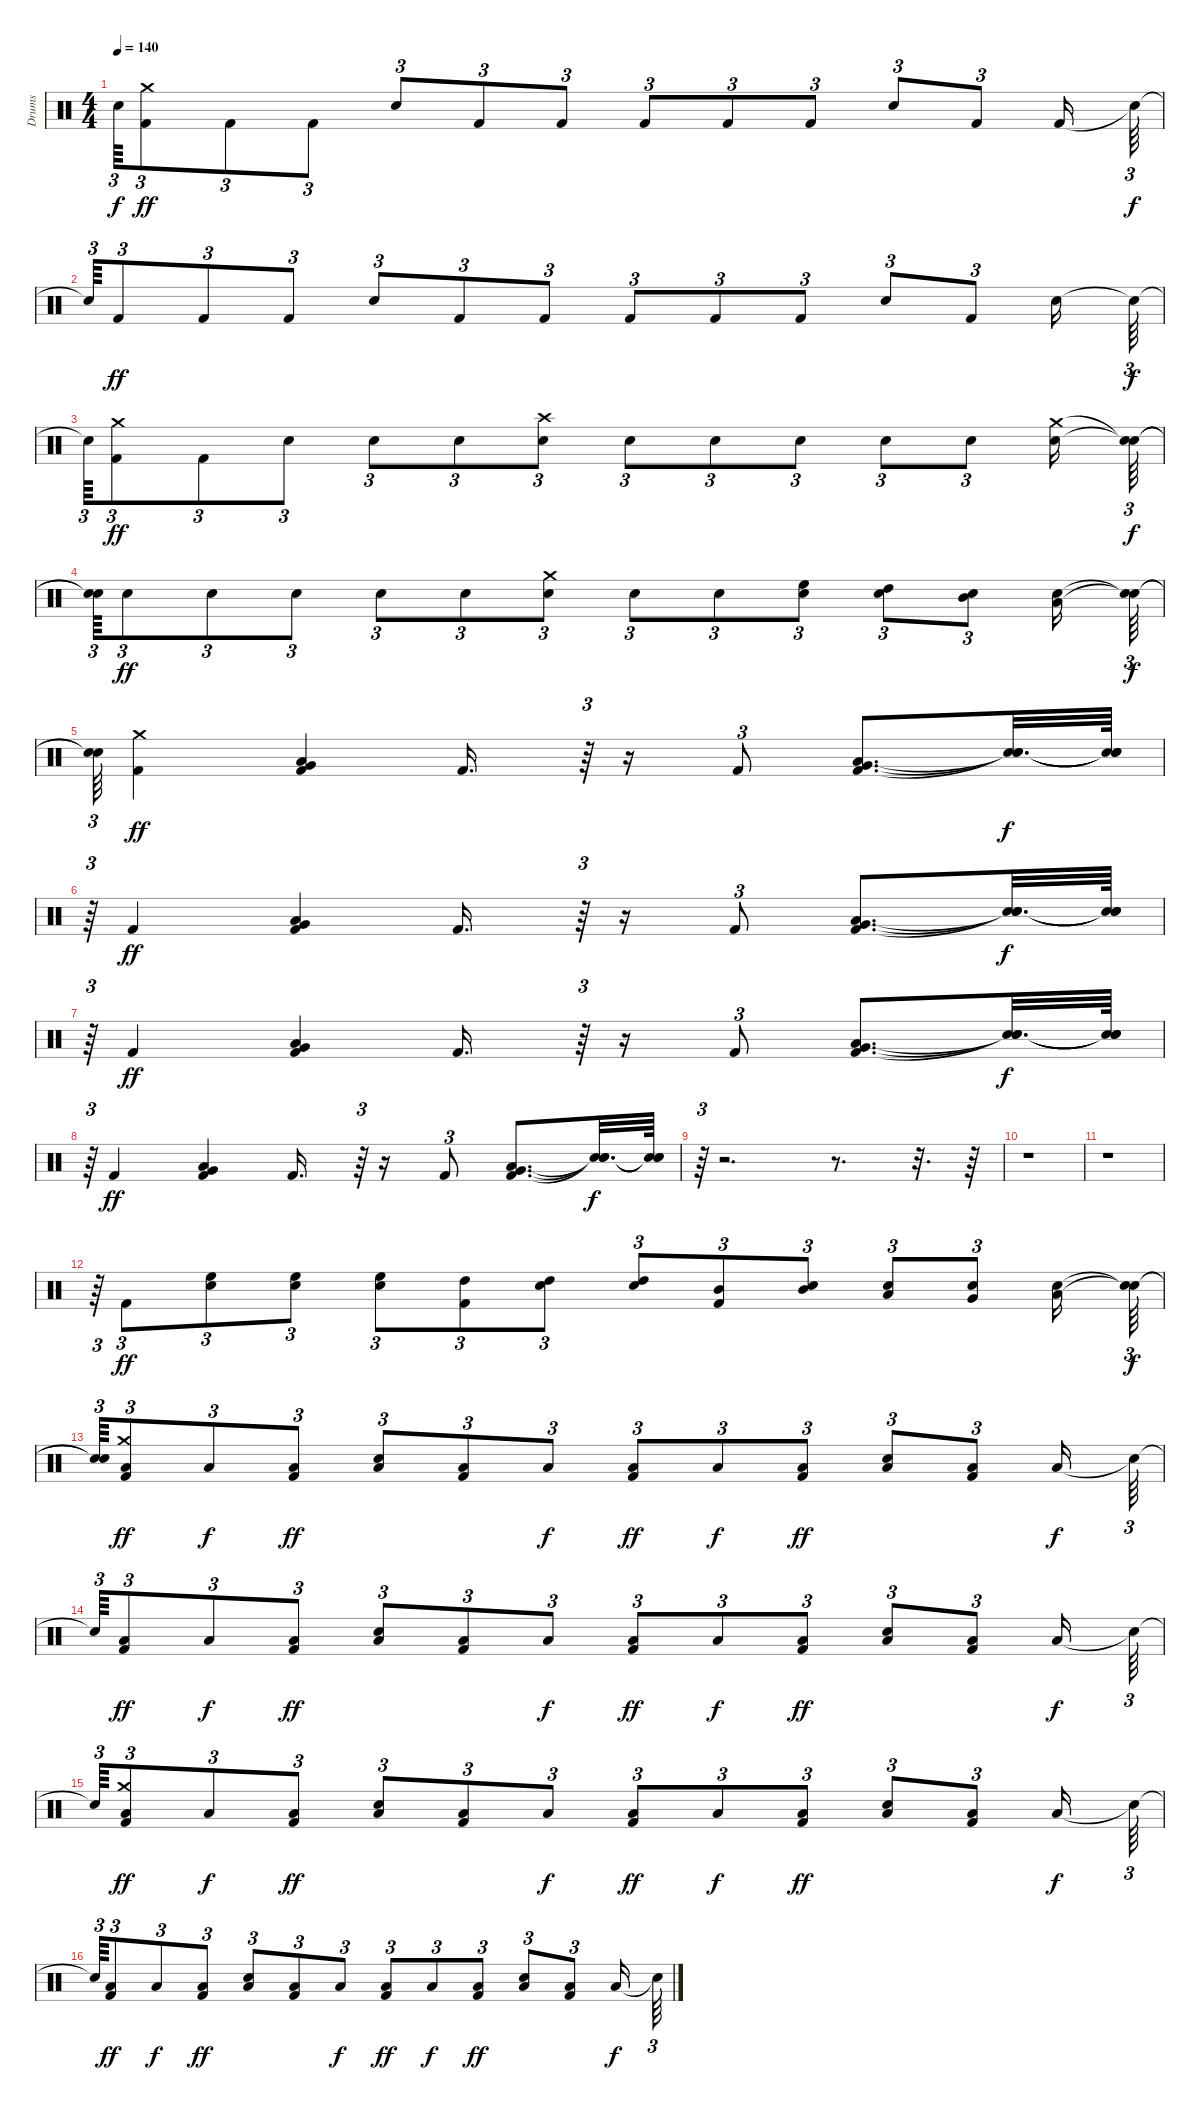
\track ("Drums" "Drums") {instrument percussion}
\staff {score}
\articulation defaults
\ts (4 4)
\tempo 140
\clef neutral
\ks c "Snare (hit)"{t}.64{tu (3 2) dy f}
("Kick (hit) 2" "Crash medium (hit)").8{tu (3 2) dy ff} "Kick (hit) 2".8{tu (3 2)} "Kick (hit) 2".8{tu (3 2)} "Snare (hit) 2".8{tu (3 2)} "Kick (hit) 2".8{tu (3 2)} "Kick (hit) 2".8{tu (3 2)} "Kick (hit) 2".8{tu (3 2)} "Kick (hit) 2".8{tu (3 2)} "Kick (hit) 2".8{tu (3 2)} "Snare (hit) 2".8{tu (3 2)} "Kick (hit) 2".8{tu (3 2)} "Kick (hit) 2".16 "Snare (hit)"{t}.64{tu (3 2) dy f} |
"Snare (hit)"{t}.64{tu (3 2)} "Kick (hit) 2".8{tu (3 2) dy ff} "Kick (hit) 2".8{tu (3 2)} "Kick (hit) 2".8{tu (3 2)} "Snare (hit) 2".8{tu (3 2)} "Kick (hit) 2".8{tu (3 2)} "Kick (hit) 2".8{tu (3 2)} "Kick (hit) 2".8{tu (3 2)} "Kick (hit) 2".8{tu (3 2)} "Kick (hit) 2".8{tu (3 2)} "Snare (hit) 2".8{tu (3 2)} "Kick (hit) 2".8{tu (3 2)} "Snare (hit) 2".16 "Snare (hit)"{t}.64{tu (3 2) dy f} |
"Snare (hit)"{t}.64{tu (3 2)} ("Kick (hit) 2" "Crash medium (hit)").8{tu (3 2) dy ff} "Kick (hit) 2".8{tu (3 2)} "Snare (hit) 2".8{tu (3 2)} "Snare (hit) 2".8{tu (3 2)} "Snare (hit) 2".8{tu (3 2)} ("Snare (hit) 2" "Crash high (hit)").8{tu (3 2)} "Snare (hit) 2".8{tu (3 2)} "Snare (hit) 2".8{tu (3 2)} "Snare (hit) 2".8{tu (3 2)} "Snare (hit) 2".8{tu (3 2)} "Snare (hit) 2".8{tu (3 2)} ("Snare (hit) 2" "Crash medium (hit)").16 ("Snare (hit)"{t} "Snare (hit)"{t}).64{tu (3 2) dy f} |
("Snare (hit)"{t} "Snare (hit)"{t}).64{tu (3 2)} "Snare (hit) 2".8{tu (3 2) dy ff} "Snare (hit) 2".8{tu (3 2)} "Snare (hit) 2".8{tu (3 2)} "Snare (hit) 2".8{tu (3 2)} "Snare (hit) 2".8{tu (3 2)} ("Snare (hit) 2" "Crash medium (hit)").8{tu (3 2)} "Snare (hit) 2".8{tu (3 2)} "Snare (hit) 2".8{tu (3 2)} ("Snare (hit) 2" "High Floor Tom (hit)").8{tu (3 2)} ("Snare (hit) 2" "High Tom (hit)").8{tu (3 2)} ("Snare (hit) 2" "Mid Tom (hit)").8{tu (3 2)} ("Snare (hit) 2" "Low Tom (hit)").16 ("Snare (hit)"{t} "Snare (hit)"{t}).64{tu (3 2) dy f} |
("Snare (hit)"{t} "Snare (hit)"{t}).64{tu (3 2)} ("Kick (hit) 2" "Crash medium (hit)").4{dy ff} ("Kick (hit) 2" "Low Floor Tom (hit)" "Very Low Tom (hit)").4 "Kick (hit) 2".16{d} r.64{tu (3 2)} r.16 "Kick (hit) 2".8{tu (3 2)} ("Kick (hit) 2" "Low Floor Tom (hit)" "Very Low Tom (hit)").8{d} ("Snare (hit)"{t} "Snare (hit)"{t} "Snare (hit)"{t}).32{d dy f} ("Snare (hit)"{t} "Snare (hit)"{t} "Snare (hit)"{t}).64 |
r.64{tu (3 2)} "Kick (hit) 2".4{dy ff} ("Kick (hit) 2" "Low Floor Tom (hit)" "Very Low Tom (hit)").4 "Kick (hit) 2".16{d} r.64{tu (3 2)} r.16 "Kick (hit) 2".8{tu (3 2)} ("Kick (hit) 2" "Low Floor Tom (hit)" "Very Low Tom (hit)").8{d} ("Snare (hit)"{t} "Snare (hit)"{t} "Snare (hit)"{t}).32{d dy f} ("Snare (hit)"{t} "Snare (hit)"{t} "Snare (hit)"{t}).64 |
r.64{tu (3 2)} "Kick (hit) 2".4{dy ff} ("Kick (hit) 2" "Low Floor Tom (hit)" "Very Low Tom (hit)").4 "Kick (hit) 2".16{d} r.64{tu (3 2)} r.16 "Kick (hit) 2".8{tu (3 2)} ("Kick (hit) 2" "Low Floor Tom (hit)" "Very Low Tom (hit)").8{d} ("Snare (hit)"{t} "Snare (hit)"{t} "Snare (hit)"{t}).32{d dy f} ("Snare (hit)"{t} "Snare (hit)"{t} "Snare (hit)"{t}).64 |
r.64{tu (3 2)} "Kick (hit) 2".4{dy ff} ("Kick (hit) 2" "Low Floor Tom (hit)" "Very Low Tom (hit)").4 "Kick (hit) 2".16{d} r.64{tu (3 2)} r.16 "Kick (hit) 2".8{tu (3 2)} ("Kick (hit) 2" "Low Floor Tom (hit)" "Very Low Tom (hit)").8{d} ("Snare (hit)"{t} "Snare (hit)"{t} "Snare (hit)"{t}).32{d dy f} ("Snare (hit)"{t} "Snare (hit)"{t} "Snare (hit)"{t}).64 |
r.64{tu (3 2)} r.2{d} r.8{d} r.32{d} r.64 |
r.1 |
r.1 |
r.64{tu (3 2)} "Kick (hit) 2".8{tu (3 2) dy ff} ("High Floor Tom (hit)" "Snare (hit) 2").8{tu (3 2)} ("High Floor Tom (hit)" "Snare (hit) 2").8{tu (3 2)} ("High Floor Tom (hit)" "Snare (hit) 2").8{tu (3 2)} ("High Tom (hit)" "Kick (hit) 2").8{tu (3 2)} ("High Tom (hit)" "Snare (hit) 2").8{tu (3 2)} ("High Tom (hit)" "Snare (hit) 2").8{tu (3 2)} ("Mid Tom (hit)" "Kick (hit) 2").8{tu (3 2)} ("Mid Tom (hit)" "Snare (hit) 2").8{tu (3 2)} ("Low Tom (hit)" "Snare (hit) 2").8{tu (3 2)} ("Very Low Tom (hit)" "Snare (hit) 2").8{tu (3 2)} ("Low Floor Tom (hit)" "Snare (hit) 2").16 ("Snare (hit)"{t} "Snare (hit)"{t}).64{tu (3 2) dy f} |
("Snare (hit)"{t} "Snare (hit)"{t}).64{tu (3 2)} ("Kick (hit) 2" "Crash medium (hit)" "Low Floor Tom (hit)").8{tu (3 2) dy ff} "Low Floor Tom (hit)".8{tu (3 2) dy f} ("Kick (hit) 2" "Low Floor Tom (hit)").8{tu (3 2) dy ff} ("Snare (hit) 2" "Low Floor Tom (hit)").8{tu (3 2)} ("Kick (hit) 2" "Low Floor Tom (hit)").8{tu (3 2)} "Low Floor Tom (hit)".8{tu (3 2) dy f} ("Kick (hit) 2" "Low Floor Tom (hit)").8{tu (3 2) dy ff} "Low Floor Tom (hit)".8{tu (3 2) dy f} ("Kick (hit) 2" "Low Floor Tom (hit)").8{tu (3 2) dy ff} ("Snare (hit) 2" "Low Floor Tom (hit)").8{tu (3 2)} ("Kick (hit) 2" "Low Floor Tom (hit)").8{tu (3 2)} "Low Floor Tom (hit)".16{dy f} "Snare (hit)"{t}.64{tu (3 2)} |
"Snare (hit)"{t}.64{tu (3 2)} ("Kick (hit) 2" "Low Floor Tom (hit)").8{tu (3 2) dy ff} "Low Floor Tom (hit)".8{tu (3 2) dy f} ("Kick (hit) 2" "Low Floor Tom (hit)").8{tu (3 2) dy ff} ("Snare (hit) 2" "Low Floor Tom (hit)").8{tu (3 2)} ("Kick (hit) 2" "Low Floor Tom (hit)").8{tu (3 2)} "Low Floor Tom (hit)".8{tu (3 2) dy f} ("Kick (hit) 2" "Low Floor Tom (hit)").8{tu (3 2) dy ff} "Low Floor Tom (hit)".8{tu (3 2) dy f} ("Kick (hit) 2" "Low Floor Tom (hit)").8{tu (3 2) dy ff} ("Snare (hit) 2" "Low Floor Tom (hit)").8{tu (3 2)} ("Kick (hit) 2" "Low Floor Tom (hit)").8{tu (3 2)} "Low Floor Tom (hit)".16{dy f} "Snare (hit)"{t}.64{tu (3 2)} |
"Snare (hit)"{t}.64{tu (3 2)} ("Kick (hit) 2" "Crash medium (hit)" "Low Floor Tom (hit)").8{tu (3 2) dy ff} "Low Floor Tom (hit)".8{tu (3 2) dy f} ("Kick (hit) 2" "Low Floor Tom (hit)").8{tu (3 2) dy ff} ("Snare (hit) 2" "Low Floor Tom (hit)").8{tu (3 2)} ("Kick (hit) 2" "Low Floor Tom (hit)").8{tu (3 2)} "Low Floor Tom (hit)".8{tu (3 2) dy f} ("Kick (hit) 2" "Low Floor Tom (hit)").8{tu (3 2) dy ff} "Low Floor Tom (hit)".8{tu (3 2) dy f} ("Kick (hit) 2" "Low Floor Tom (hit)").8{tu (3 2) dy ff} ("Snare (hit) 2" "Low Floor Tom (hit)").8{tu (3 2)} ("Kick (hit) 2" "Low Floor Tom (hit)").8{tu (3 2)} "Low Floor Tom (hit)".16{dy f} "Snare (hit)"{t}.64{tu (3 2)} |
"Snare (hit)"{t}.64{tu (3 2)} ("Kick (hit) 2" "Low Floor Tom (hit)").8{tu (3 2) dy ff} "Low Floor Tom (hit)".8{tu (3 2) dy f} ("Kick (hit) 2" "Low Floor Tom (hit)").8{tu (3 2) dy ff} ("Snare (hit) 2" "Low Floor Tom (hit)").8{tu (3 2)} ("Kick (hit) 2" "Low Floor Tom (hit)").8{tu (3 2)} "Low Floor Tom (hit)".8{tu (3 2) dy f} ("Kick (hit) 2" "Low Floor Tom (hit)").8{tu (3 2) dy ff} "Low Floor Tom (hit)".8{tu (3 2) dy f} ("Kick (hit) 2" "Low Floor Tom (hit)").8{tu (3 2) dy ff} ("Snare (hit) 2" "Low Floor Tom (hit)").8{tu (3 2)} ("Kick (hit) 2" "Low Floor Tom (hit)").8{tu (3 2)} "Low Floor Tom (hit)".16{dy f} "Snare (hit)"{t}.64{tu (3 2)}
